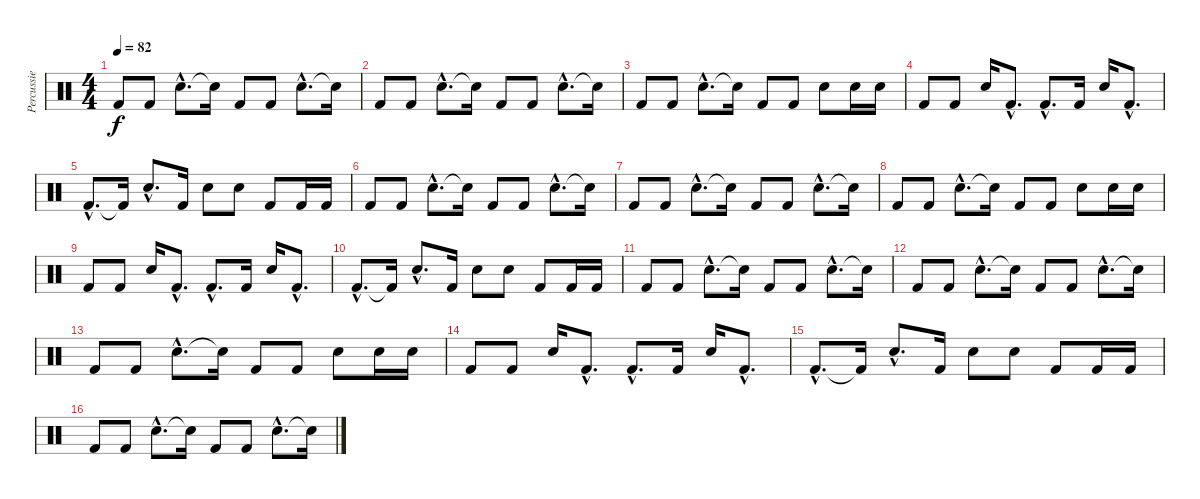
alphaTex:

\track ("Percussie" "Percussie") {instrument percussion}
\staff {score}
\articulation defaults
\ts (4 4)
\tempo 82
\clef neutral
\ks c "Kick (hit) 2".8{dy f} "Kick (hit) 2".8 "Snare (hit) 2"{hac}.8{d} "Snare (hit)"{t}.16 "Kick (hit) 2".8 "Kick (hit) 2".8 "Snare (hit) 2"{hac}.8{d} "Snare (hit)"{t}.16
|
"Kick (hit) 2".8 "Kick (hit) 2".8 "Snare (hit) 2"{hac}.8{d} "Snare (hit)"{t}.16 "Kick (hit) 2".8 "Kick (hit) 2".8 "Snare (hit) 2"{hac}.8{d} "Snare (hit)"{t}.16 |
"Kick (hit) 2".8 "Kick (hit) 2".8 "Snare (hit) 2"{hac}.8{d} "Snare (hit)"{t}.16 "Kick (hit) 2".8 "Kick (hit) 2".8 "Snare (hit) 2".8 "Snare (hit) 2".16 "Snare (hit) 2".16 |
"Kick (hit) 2".8 "Kick (hit) 2".8 "Snare (hit) 2".16 "Kick (hit) 2"{hac}.8{d} "Kick (hit) 2"{hac}.8{d} "Kick (hit) 2".16 "Snare (hit) 2".16 "Kick (hit) 2"{hac}.8{d} |
"Kick (hit) 2"{hac}.8{d} "Kick (hit) 2"{t}.16 "Snare (hit) 2"{hac}.8{d} "Kick (hit) 2".16 "Snare (hit) 2".8 "Snare (hit) 2".8 "Kick (hit) 2".8 "Kick (hit) 2".16 "Kick (hit) 2".16 |
"Kick (hit) 2".8 "Kick (hit) 2".8 "Snare (hit) 2"{hac}.8{d} "Snare (hit)"{t}.16 "Kick (hit) 2".8 "Kick (hit) 2".8 "Snare (hit) 2"{hac}.8{d} "Snare (hit)"{t}.16 |
"Kick (hit) 2".8 "Kick (hit) 2".8 "Snare (hit) 2"{hac}.8{d} "Snare (hit)"{t}.16 "Kick (hit) 2".8 "Kick (hit) 2".8 "Snare (hit) 2"{hac}.8{d} "Snare (hit)"{t}.16 |
"Kick (hit) 2".8 "Kick (hit) 2".8 "Snare (hit) 2"{hac}.8{d} "Snare (hit)"{t}.16 "Kick (hit) 2".8 "Kick (hit) 2".8 "Snare (hit) 2".8 "Snare (hit) 2".16 "Snare (hit) 2".16 |
"Kick (hit) 2".8 "Kick (hit) 2".8 "Snare (hit) 2".16 "Kick (hit) 2"{hac}.8{d} "Kick (hit) 2"{hac}.8{d} "Kick (hit) 2".16 "Snare (hit) 2".16 "Kick (hit) 2"{hac}.8{d} |
"Kick (hit) 2"{hac}.8{d} "Kick (hit) 2"{t}.16 "Snare (hit) 2"{hac}.8{d} "Kick (hit) 2".16 "Snare (hit) 2".8 "Snare (hit) 2".8 "Kick (hit) 2".8 "Kick (hit) 2".16 "Kick (hit) 2".16 |
"Kick (hit) 2".8 "Kick (hit) 2".8 "Snare (hit) 2"{hac}.8{d} "Snare (hit)"{t}.16 "Kick (hit) 2".8 "Kick (hit) 2".8 "Snare (hit) 2"{hac}.8{d} "Snare (hit)"{t}.16 |
"Kick (hit) 2".8 "Kick (hit) 2".8 "Snare (hit) 2"{hac}.8{d} "Snare (hit)"{t}.16 "Kick (hit) 2".8 "Kick (hit) 2".8 "Snare (hit) 2"{hac}.8{d} "Snare (hit)"{t}.16 |
"Kick (hit) 2".8 "Kick (hit) 2".8 "Snare (hit) 2"{hac}.8{d} "Snare (hit)"{t}.16 "Kick (hit) 2".8 "Kick (hit) 2".8 "Snare (hit) 2".8 "Snare (hit) 2".16 "Snare (hit) 2".16 |
"Kick (hit) 2".8 "Kick (hit) 2".8 "Snare (hit) 2".16 "Kick (hit) 2"{hac}.8{d} "Kick (hit) 2"{hac}.8{d} "Kick (hit) 2".16 "Snare (hit) 2".16 "Kick (hit) 2"{hac}.8{d} |
"Kick (hit) 2"{hac}.8{d} "Kick (hit) 2"{t}.16 "Snare (hit) 2"{hac}.8{d} "Kick (hit) 2".16 "Snare (hit) 2".8 "Snare (hit) 2".8 "Kick (hit) 2".8 "Kick (hit) 2".16 "Kick (hit) 2".16 |
"Kick (hit) 2".8 "Kick (hit) 2".8 "Snare (hit) 2"{hac}.8{d} "Snare (hit)"{t}.16 "Kick (hit) 2".8 "Kick (hit) 2".8 "Snare (hit) 2"{hac}.8{d} "Snare (hit)"{t}.16
